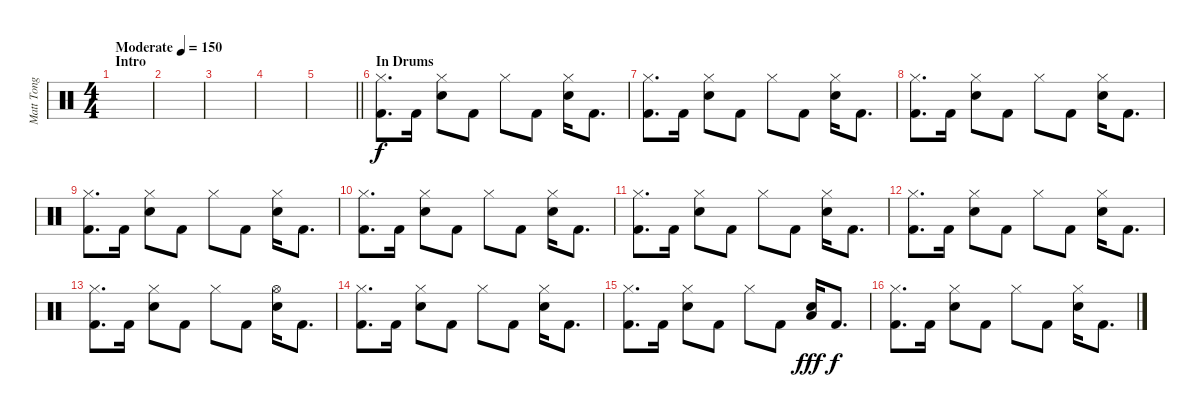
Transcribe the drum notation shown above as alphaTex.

\track ("Matt Tong" "Matt Tong") {instrument percussion}
\staff {score}
\articulation defaults
\ts (4 4)
\section ("" "Intro")
\tempo (150 "Moderate")
\clef neutral
\ks c
|
|
|
|
\barLineRight lightlight
|
\section ("" "In Drums")
("Hi-Hat (closed)" "Kick (hit) 2").8{d} "Kick (hit) 2".16 ("Hi-Hat (closed)" "Electric Snare (hit)").8 "Kick (hit) 2".8 "Hi-Hat (closed)".8 "Kick (hit) 2".8 ("Hi-Hat (closed)" "Electric Snare (hit)").16 "Kick (hit) 2".8{d} |
("Hi-Hat (closed)" "Kick (hit) 2").8{d} "Kick (hit) 2".16 ("Hi-Hat (closed)" "Electric Snare (hit)").8 "Kick (hit) 2".8 "Hi-Hat (closed)".8 "Kick (hit) 2".8 ("Hi-Hat (closed)" "Electric Snare (hit)").16 "Kick (hit) 2".8{d} |
("Hi-Hat (closed)" "Kick (hit) 2").8{d} "Kick (hit) 2".16 ("Hi-Hat (closed)" "Electric Snare (hit)").8 "Kick (hit) 2".8 "Hi-Hat (closed)".8 "Kick (hit) 2".8 ("Hi-Hat (closed)" "Electric Snare (hit)").16 "Kick (hit) 2".8{d} |
("Hi-Hat (closed)" "Kick (hit) 2").8{d} "Kick (hit) 2".16 ("Hi-Hat (closed)" "Electric Snare (hit)").8 "Kick (hit) 2".8 "Hi-Hat (closed)".8 "Kick (hit) 2".8 ("Hi-Hat (closed)" "Electric Snare (hit)").16 "Kick (hit) 2".8{d} |
("Hi-Hat (closed)" "Kick (hit) 2").8{d} "Kick (hit) 2".16 ("Hi-Hat (closed)" "Electric Snare (hit)").8 "Kick (hit) 2".8 "Hi-Hat (closed)".8 "Kick (hit) 2".8 ("Hi-Hat (closed)" "Electric Snare (hit)").16 "Kick (hit) 2".8{d} |
("Hi-Hat (closed)" "Kick (hit) 2").8{d} "Kick (hit) 2".16 ("Hi-Hat (closed)" "Electric Snare (hit)").8 "Kick (hit) 2".8 "Hi-Hat (closed)".8 "Kick (hit) 2".8 ("Hi-Hat (closed)" "Electric Snare (hit)").16 "Kick (hit) 2".8{d} |
("Hi-Hat (closed)" "Kick (hit) 2").8{d} "Kick (hit) 2".16 ("Hi-Hat (closed)" "Electric Snare (hit)").8 "Kick (hit) 2".8 "Hi-Hat (closed)".8 "Kick (hit) 2".8 ("Hi-Hat (closed)" "Electric Snare (hit)").16 "Kick (hit) 2".8{d} |
("Hi-Hat (closed)" "Kick (hit) 2").8{d} "Kick (hit) 2".16 ("Hi-Hat (closed)" "Electric Snare (hit)").8 "Kick (hit) 2".8 "Hi-Hat (closed)".8 "Kick (hit) 2".8 ("Hi-Hat (open)" "Electric Snare (hit)").16 "Kick (hit) 2".8{d} |
("Hi-Hat (closed)" "Kick (hit) 2").8{d} "Kick (hit) 2".16 ("Hi-Hat (closed)" "Electric Snare (hit)").8 "Kick (hit) 2".8 "Hi-Hat (closed)".8 "Kick (hit) 2".8 ("Hi-Hat (closed)" "Electric Snare (hit)").16 "Kick (hit) 2".8{d} |
("Hi-Hat (closed)" "Kick (hit) 2").8{d} "Kick (hit) 2".16 ("Hi-Hat (closed)" "Electric Snare (hit)").8 "Kick (hit) 2".8 "Hi-Hat (closed)".8 "Kick (hit) 2".8 ("Electric Snare (hit)" "Low Tom (hit)").16{dy fff} "Kick (hit) 2".8{d dy f} |
("Hi-Hat (closed)" "Kick (hit) 2").8{d} "Kick (hit) 2".16 ("Hi-Hat (closed)" "Electric Snare (hit)").8 "Kick (hit) 2".8 "Hi-Hat (closed)".8 "Kick (hit) 2".8 ("Hi-Hat (closed)" "Electric Snare (hit)").16 "Kick (hit) 2".8{d}
